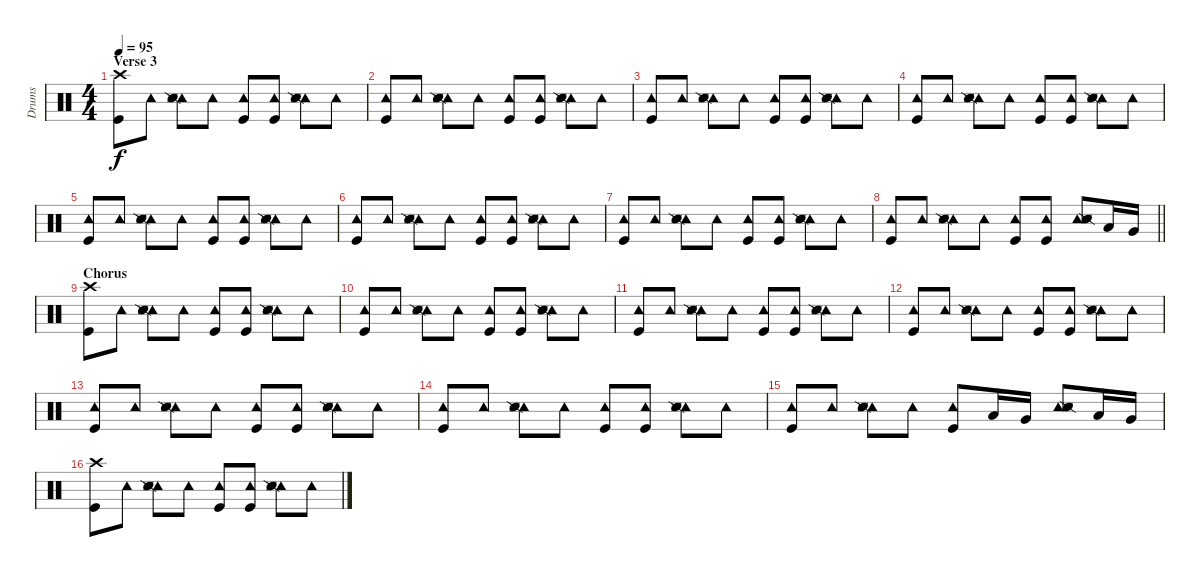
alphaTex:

\track ("Drums" "Drums") {instrument percussion}
\staff {score}
\articulation defaults
\ts (4 4)
\section ("" "Verse 3")
\tempo 95
\clef neutral
\ks c
("Crash high (hit)" "Kick (hit)").8{dy f} "Tambourine (hit)".8 ("Tambourine (hit)" "Snare (side stick) 3" "Snare (side stick) 2").8 "Tambourine (hit)".8 ("Tambourine (hit)" "Kick (hit)").8 ("Tambourine (hit)" "Kick (hit)").8 ("Tambourine (hit)" "Snare (side stick) 3" "Snare (side stick) 2").8 "Tambourine (hit)".8 |
("Tambourine (hit)" "Kick (hit)").8 "Tambourine (hit)".8 ("Tambourine (hit)" "Snare (side stick) 3" "Snare (side stick) 2").8 "Tambourine (hit)".8 ("Tambourine (hit)" "Kick (hit)").8 ("Tambourine (hit)" "Kick (hit)").8 ("Tambourine (hit)" "Snare (side stick) 3" "Snare (side stick) 2").8 "Tambourine (hit)".8 |
("Tambourine (hit)" "Kick (hit)").8 "Tambourine (hit)".8 ("Tambourine (hit)" "Snare (side stick) 3" "Snare (side stick) 2").8 "Tambourine (hit)".8 ("Tambourine (hit)" "Kick (hit)").8 ("Tambourine (hit)" "Kick (hit)").8 ("Tambourine (hit)" "Snare (side stick) 3" "Snare (side stick) 2").8 "Tambourine (hit)".8 |
("Tambourine (hit)" "Kick (hit)").8 "Tambourine (hit)".8 ("Tambourine (hit)" "Snare (side stick) 3" "Snare (side stick) 2").8 "Tambourine (hit)".8 ("Tambourine (hit)" "Kick (hit)").8 ("Tambourine (hit)" "Kick (hit)").8 ("Tambourine (hit)" "Snare (side stick) 3" "Snare (side stick) 2").8 "Tambourine (hit)".8 |
("Tambourine (hit)" "Kick (hit)").8 "Tambourine (hit)".8 ("Tambourine (hit)" "Snare (side stick) 3" "Snare (side stick) 2").8 "Tambourine (hit)".8 ("Tambourine (hit)" "Kick (hit)").8 ("Tambourine (hit)" "Kick (hit)").8 ("Tambourine (hit)" "Snare (side stick) 3" "Snare (side stick) 2").8 "Tambourine (hit)".8 |
("Tambourine (hit)" "Kick (hit)").8 "Tambourine (hit)".8 ("Tambourine (hit)" "Snare (side stick) 3" "Snare (side stick) 2").8 "Tambourine (hit)".8 ("Tambourine (hit)" "Kick (hit)").8 ("Tambourine (hit)" "Kick (hit)").8 ("Tambourine (hit)" "Snare (side stick) 3" "Snare (side stick) 2").8 "Tambourine (hit)".8 |
("Tambourine (hit)" "Kick (hit)").8 "Tambourine (hit)".8 ("Tambourine (hit)" "Snare (side stick) 3" "Snare (side stick) 2").8 "Tambourine (hit)".8 ("Tambourine (hit)" "Kick (hit)").8 ("Tambourine (hit)" "Kick (hit)").8 ("Tambourine (hit)" "Snare (side stick) 3" "Snare (side stick) 2").8 "Tambourine (hit)".8 |
\barLineRight lightlight
("Tambourine (hit)" "Kick (hit)").8 "Tambourine (hit)".8 ("Tambourine (hit)" "Snare (side stick) 3" "Snare (side stick) 2").8 "Tambourine (hit)".8 ("Tambourine (hit)" "Kick (hit)").8 ("Tambourine (hit)" "Kick (hit)").8 ("Tambourine (hit)" "Snare (side stick) 3" "Snare (side stick) 2").8 "Low Tom (hit)".16 "Very Low Tom (hit)".16 |
\section ("" "Chorus")
("Crash high (hit)" "Kick (hit)").8 "Tambourine (hit)".8 ("Tambourine (hit)" "Snare (side stick) 3" "Snare (side stick) 2").8 "Tambourine (hit)".8 ("Tambourine (hit)" "Kick (hit)").8 ("Tambourine (hit)" "Kick (hit)").8 ("Tambourine (hit)" "Snare (side stick) 3" "Snare (side stick) 2").8 "Tambourine (hit)".8 |
("Tambourine (hit)" "Kick (hit)").8 "Tambourine (hit)".8 ("Tambourine (hit)" "Snare (side stick) 3" "Snare (side stick) 2").8 "Tambourine (hit)".8 ("Tambourine (hit)" "Kick (hit)").8 ("Tambourine (hit)" "Kick (hit)").8 ("Tambourine (hit)" "Snare (side stick) 3" "Snare (side stick) 2").8 "Tambourine (hit)".8 |
("Tambourine (hit)" "Kick (hit)").8 "Tambourine (hit)".8 ("Tambourine (hit)" "Snare (side stick) 3" "Snare (side stick) 2").8 "Tambourine (hit)".8 ("Tambourine (hit)" "Kick (hit)").8 ("Tambourine (hit)" "Kick (hit)").8 ("Tambourine (hit)" "Snare (side stick) 3" "Snare (side stick) 2").8 "Tambourine (hit)".8 |
("Tambourine (hit)" "Kick (hit)").8 "Tambourine (hit)".8 ("Tambourine (hit)" "Snare (side stick) 3" "Snare (side stick) 2").8 "Tambourine (hit)".8 ("Tambourine (hit)" "Kick (hit)").8 ("Tambourine (hit)" "Kick (hit)").8 ("Tambourine (hit)" "Snare (side stick) 3" "Snare (side stick) 2").8 "Tambourine (hit)".8 |
("Tambourine (hit)" "Kick (hit)").8 "Tambourine (hit)".8 ("Tambourine (hit)" "Snare (side stick) 3" "Snare (side stick) 2").8 "Tambourine (hit)".8 ("Tambourine (hit)" "Kick (hit)").8 ("Tambourine (hit)" "Kick (hit)").8 ("Tambourine (hit)" "Snare (side stick) 3" "Snare (side stick) 2").8 "Tambourine (hit)".8 |
("Tambourine (hit)" "Kick (hit)").8 "Tambourine (hit)".8 ("Tambourine (hit)" "Snare (side stick) 3" "Snare (side stick) 2").8 "Tambourine (hit)".8 ("Tambourine (hit)" "Kick (hit)").8 ("Tambourine (hit)" "Kick (hit)").8 ("Tambourine (hit)" "Snare (side stick) 3" "Snare (side stick) 2").8 "Tambourine (hit)".8 |
("Tambourine (hit)" "Kick (hit)").8 "Tambourine (hit)".8 ("Tambourine (hit)" "Snare (side stick) 3" "Snare (side stick) 2").8 "Tambourine (hit)".8 ("Tambourine (hit)" "Kick (hit)").8 "Low Tom (hit)".16 "Very Low Tom (hit)".16 ("Tambourine (hit)" "Snare (side stick) 3" "Snare (side stick) 2").8 "Low Tom (hit)".16 "Very Low Tom (hit)".16 |
("Crash high (hit)" "Kick (hit)").8 "Tambourine (hit)".8 ("Tambourine (hit)" "Snare (side stick) 3" "Snare (side stick) 2").8 "Tambourine (hit)".8 ("Tambourine (hit)" "Kick (hit)").8 ("Tambourine (hit)" "Kick (hit)").8 ("Tambourine (hit)" "Snare (side stick) 3" "Snare (side stick) 2").8 "Tambourine (hit)".8
